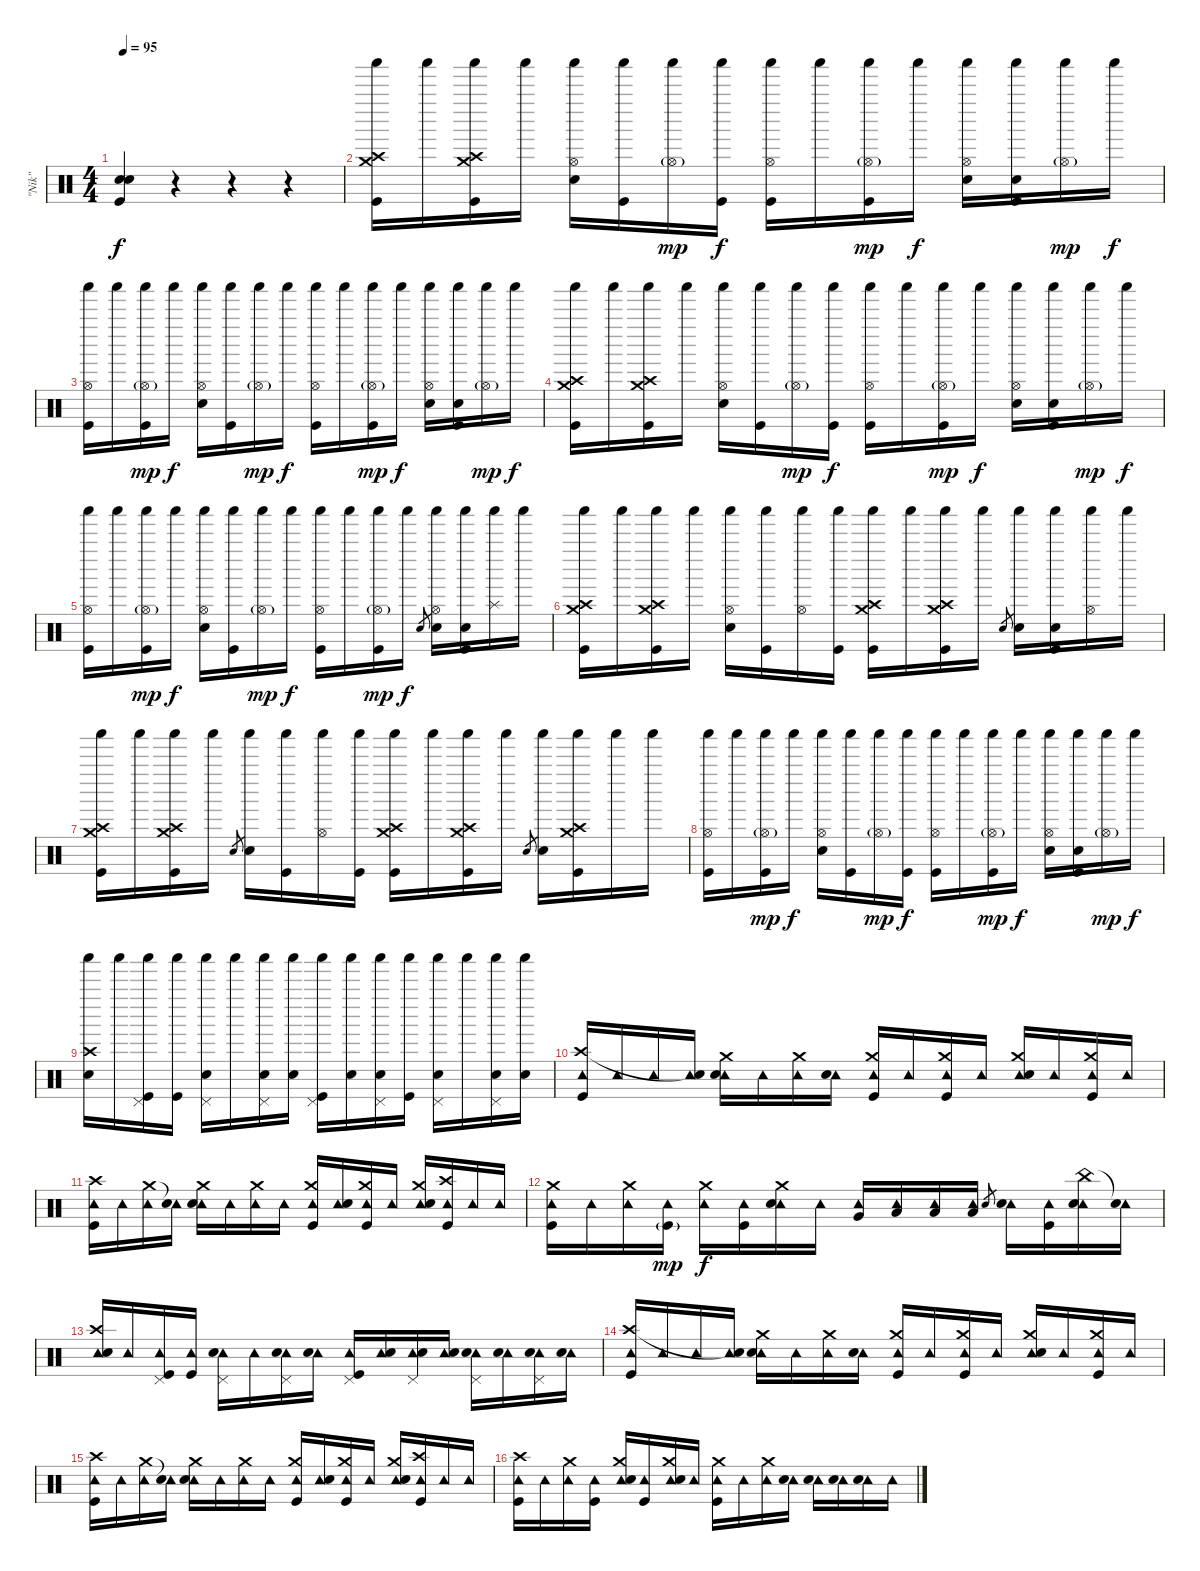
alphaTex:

\track ("\"Nik\"" "\"Nik\"") {instrument percussion}
\staff {score}
\articulation defaults
\ts (4 4)
\tempo 95
\clef neutral
\ks c
("Snare (hit) 2" "Snare (hit) 2" "Kick (hit)").4{dy f} r.4 r.4 r.4 |
("Shaker (hit)" "Crash medium (hit)" "Crash high (hit)" "Kick (hit)").16 "Shaker (hit)".16 ("Shaker (hit)" "Crash medium (hit)" "Crash high (hit)" "Kick (hit)").16 "Shaker (hit)".16 ("Shaker (hit)" "Hi-Hat (open)" "Snare (hit) 2").16 ("Shaker (hit)" "Kick (hit)").16 ("Shaker (hit)" "Hi-Hat (open)"{g}).16{dy mp} ("Shaker (hit)" "Kick (hit)").16{dy f} ("Shaker (hit)" "Hi-Hat (open)" "Kick (hit)").16 "Shaker (hit)".16 ("Shaker (hit)" "Hi-Hat (open)"{g} "Kick (hit)").16{dy mp} "Shaker (hit)".16{dy f} ("Shaker (hit)" "Hi-Hat (open)" "Snare (hit) 2").16 ("Shaker (hit)" "Snare (hit)"{x} "Kick (hit)").16 ("Shaker (hit)" "Hi-Hat (open)"{g}).16{dy mp} "Shaker (hit)".16{dy f} |
("Shaker (hit)" "Hi-Hat (open)" "Kick (hit)").16 "Shaker (hit)".16 ("Shaker (hit)" "Hi-Hat (open)"{g} "Kick (hit)").16{dy mp} "Shaker (hit)".16{dy f} ("Shaker (hit)" "Hi-Hat (open)" "Snare (hit) 2").16 ("Shaker (hit)" "Kick (hit)").16 ("Shaker (hit)" "Hi-Hat (open)"{g}).16{dy mp} "Shaker (hit)".16{dy f} ("Shaker (hit)" "Hi-Hat (open)" "Kick (hit)").16 "Shaker (hit)".16 ("Shaker (hit)" "Hi-Hat (open)"{g} "Kick (hit)").16{dy mp} "Shaker (hit)".16{dy f} ("Shaker (hit)" "Hi-Hat (open)" "Snare (hit) 2").16 ("Shaker (hit)" "Snare (hit)"{x} "Kick (hit)").16 ("Shaker (hit)" "Hi-Hat (open)"{g}).16{dy mp} "Shaker (hit)".16{dy f} |
("Shaker (hit)" "Crash medium (hit)" "Crash high (hit)" "Kick (hit)").16 "Shaker (hit)".16 ("Shaker (hit)" "Crash medium (hit)" "Crash high (hit)" "Kick (hit)").16 "Shaker (hit)".16 ("Shaker (hit)" "Hi-Hat (open)" "Snare (hit) 2").16 ("Shaker (hit)" "Kick (hit)").16 ("Shaker (hit)" "Hi-Hat (open)"{g}).16{dy mp} ("Shaker (hit)" "Kick (hit)").16{dy f} ("Shaker (hit)" "Hi-Hat (open)" "Kick (hit)").16 "Shaker (hit)".16 ("Shaker (hit)" "Hi-Hat (open)"{g} "Kick (hit)").16{dy mp} "Shaker (hit)".16{dy f} ("Shaker (hit)" "Hi-Hat (open)" "Snare (hit) 2").16 ("Shaker (hit)" "Snare (hit)"{x} "Kick (hit)").16 ("Shaker (hit)" "Hi-Hat (open)"{g}).16{dy mp} "Shaker (hit)".16{dy f} |
("Shaker (hit)" "Hi-Hat (open)" "Kick (hit)").16 "Shaker (hit)".16 ("Shaker (hit)" "Hi-Hat (open)"{g} "Kick (hit)").16{dy mp} "Shaker (hit)".16{dy f} ("Shaker (hit)" "Hi-Hat (open)" "Snare (hit) 2").16 ("Shaker (hit)" "Kick (hit)").16 ("Shaker (hit)" "Hi-Hat (open)"{g}).16{dy mp} "Shaker (hit)".16{dy f} ("Shaker (hit)" "Hi-Hat (open)" "Kick (hit)").16 "Shaker (hit)".16 ("Shaker (hit)" "Hi-Hat (open)"{g} "Kick (hit)").16{dy mp} "Shaker (hit)".16{dy f} "Snare (hit) 2".8{gr} ("Shaker (hit)" "Hi-Hat (open)" "Snare (hit) 2").16 ("Shaker (hit)" "Snare (hit)"{x} "Kick (hit)").16 ("Shaker (hit)" "Splash (hit)").16 "Shaker (hit)".16 |
("Shaker (hit)" "Crash medium (hit)" "Crash high (hit)" "Kick (hit)").16 "Shaker (hit)".16 ("Shaker (hit)" "Crash medium (hit)" "Crash high (hit)" "Kick (hit)").16 "Shaker (hit)".16 ("Shaker (hit)" "Hi-Hat (open)" "Snare (hit) 2").16 ("Shaker (hit)" "Kick (hit)").16 ("Shaker (hit)" "Hi-Hat (open)").16 ("Shaker (hit)" "Kick (hit)").16 ("Shaker (hit)" "Crash medium (hit)" "Crash high (hit)" "Kick (hit)").16 "Shaker (hit)".16 ("Shaker (hit)" "Crash medium (hit)" "Crash high (hit)" "Kick (hit)").16 "Shaker (hit)".16 "Snare (hit) 2".8{gr} ("Shaker (hit)" "Snare (hit) 2").16 ("Shaker (hit)" "Snare (hit)"{x} "Kick (hit)").16 ("Shaker (hit)" "Hi-Hat (open)").16 "Shaker (hit)".16 |
("Shaker (hit)" "Crash medium (hit)" "Crash high (hit)" "Kick (hit)").16 "Shaker (hit)".16 ("Shaker (hit)" "Crash medium (hit)" "Crash high (hit)" "Kick (hit)").16 "Shaker (hit)".16 "Snare (hit) 2".8{gr} ("Shaker (hit)" "Snare (hit) 2").16 ("Shaker (hit)" "Kick (hit)").16 ("Shaker (hit)" "Hi-Hat (open)").16 ("Shaker (hit)" "Kick (hit)").16 ("Shaker (hit)" "Crash medium (hit)" "Crash high (hit)" "Kick (hit)").16 "Shaker (hit)".16 ("Shaker (hit)" "Crash medium (hit)" "Crash high (hit)" "Kick (hit)").16 "Shaker (hit)".16 "Snare (hit) 2".8{gr} ("Shaker (hit)" "Snare (hit) 2").16 ("Shaker (hit)" "Crash medium (hit)" "Crash high (hit)" "Kick (hit)").16 "Shaker (hit)".16 "Shaker (hit)".16 |
("Shaker (hit)" "Hi-Hat (open)" "Kick (hit)").16 "Shaker (hit)".16 ("Shaker (hit)" "Hi-Hat (open)"{g} "Kick (hit)").16{dy mp} "Shaker (hit)".16{dy f} ("Shaker (hit)" "Hi-Hat (open)" "Snare (hit) 2").16 ("Shaker (hit)" "Kick (hit)").16 ("Shaker (hit)" "Hi-Hat (open)"{g}).16{dy mp} ("Shaker (hit)" "Kick (hit)").16{dy f} ("Shaker (hit)" "Hi-Hat (open)" "Kick (hit)").16 "Shaker (hit)".16 ("Shaker (hit)" "Hi-Hat (open)"{g} "Kick (hit)").16{dy mp} "Shaker (hit)".16{dy f} ("Shaker (hit)" "Hi-Hat (open)" "Snare (hit) 2").16 ("Shaker (hit)" "Snare (hit)"{x} "Kick (hit)").16 ("Shaker (hit)" "Hi-Hat (open)"{g}).16{dy mp} "Shaker (hit)".16{dy f} |
("Shaker (hit)" "Crash high (hit)" "Snare (hit) 2").16 "Shaker (hit)".16 ("Shaker (hit)" "Pedal Hi-Hat (hit)" "Kick (hit)").16 ("Shaker (hit)" "Kick (hit)").16 ("Shaker (hit)" "Pedal Hi-Hat (hit)" "Snare (hit) 2").16 "Shaker (hit)".16 ("Shaker (hit)" "Pedal Hi-Hat (hit)" "Snare (hit) 2").16 ("Shaker (hit)" "Snare (hit) 2").16 ("Shaker (hit)" "Pedal Hi-Hat (hit)" "Kick (hit)").16 ("Shaker (hit)" "Snare (hit) 2").16 ("Shaker (hit)" "Pedal Hi-Hat (hit)" "Snare (hit) 2").16 ("Shaker (hit)" "Kick (hit)").16 ("Shaker (hit)" "Pedal Hi-Hat (hit)" "Snare (hit) 2").16 "Shaker (hit)".16 ("Shaker (hit)" "Pedal Hi-Hat (hit)" "Snare (hit) 2").16 ("Shaker (hit)" "Snare (hit) 2").16 |
("Tambourine (hit)" "Crash high (hit)" "Kick (hit)").16 "Tambourine (hit)".16 "Tambourine (hit)".16 ("Tambourine (hit)" "Snare (hit)"{t}).16 ("Tambourine (hit)" "Crash medium (hit)" "Snare (hit) 2").16 "Tambourine (hit)".16 ("Tambourine (hit)" "Crash medium (hit)").16 ("Tambourine (hit)" "Snare (hit) 2").16 ("Tambourine (hit)" "Crash medium (hit)" "Kick (hit)").16 "Tambourine (hit)".16 ("Tambourine (hit)" "Crash medium (hit)" "Kick (hit)").16 "Tambourine (hit)".16 ("Tambourine (hit)" "Crash medium (hit)" "Snare (hit) 2").16 "Tambourine (hit)".16 ("Tambourine (hit)" "Crash medium (hit)" "Kick (hit)").16 "Tambourine (hit)".16 |
("Tambourine (hit)" "Crash high (hit)" "Kick (hit)").16 "Tambourine (hit)".16 ("Tambourine (hit)" "Crash medium (hit)").16 ("Tambourine (hit)" "Snare (hit)"{t}).16 ("Tambourine (hit)" "Crash medium (hit)" "Snare (hit) 2").16 "Tambourine (hit)".16 ("Tambourine (hit)" "Crash medium (hit)").16 "Tambourine (hit)".16 ("Tambourine (hit)" "Crash medium (hit)" "Kick (hit)").16 ("Tambourine (hit)" "Snare (hit) 2").16 ("Tambourine (hit)" "Crash medium (hit)" "Kick (hit)").16 "Tambourine (hit)".16 ("Tambourine (hit)" "Crash medium (hit)" "Snare (hit) 2").16 ("Tambourine (hit)" "Crash high (hit)" "Kick (hit)").16 "Tambourine (hit)".16 "Tambourine (hit)".16 |
("Tambourine (hit)" "Crash medium (hit)" "Kick (hit)").16 "Tambourine (hit)".16 ("Tambourine (hit)" "Crash medium (hit)").16 ("Tambourine (hit)" "Kick (hit)"{g}).16{dy mp} ("Tambourine (hit)" "Crash medium (hit)").16{dy f} ("Tambourine (hit)" "Kick (hit)").16 ("Tambourine (hit)" "Crash medium (hit)" "Snare (hit) 2").16 "Tambourine (hit)".16 ("Tambourine (hit)" "Very Low Tom (hit)").16 ("Tambourine (hit)" "Low Tom (hit)").16 ("Tambourine (hit)" "Low Tom (hit)").16 ("Tambourine (hit)" "Low Floor Tom (hit)").16 "Snare (hit) 2".8{gr} ("Tambourine (hit)" "Snare (hit) 2").16 ("Tambourine (hit)" "Kick (hit)").16 ("Tambourine (hit)" "China (hit)" "Snare (hit) 2").16 ("Tambourine (hit)" "Snare (hit)"{t}).16 |
("Tambourine (hit)" "Crash high (hit)" "Snare (hit) 2").16 "Tambourine (hit)".16 ("Tambourine (hit)" "Pedal Hi-Hat (hit)" "Kick (hit)").16 ("Tambourine (hit)" "Kick (hit)").16 ("Tambourine (hit)" "Pedal Hi-Hat (hit)" "Snare (hit) 2").16 "Tambourine (hit)".16 ("Tambourine (hit)" "Pedal Hi-Hat (hit)" "Snare (hit) 2").16 ("Tambourine (hit)" "Snare (hit) 2").16 ("Tambourine (hit)" "Pedal Hi-Hat (hit)" "Kick (hit)").16 ("Tambourine (hit)" "Snare (hit) 2").16 ("Tambourine (hit)" "Pedal Hi-Hat (hit)" "Snare (hit) 2").16 ("Tambourine (hit)" "Snare (hit) 2").16 ("Tambourine (hit)" "Pedal Hi-Hat (hit)" "Snare (hit) 2").16 ("Tambourine (hit)" "Snare (hit) 2").16 ("Tambourine (hit)" "Pedal Hi-Hat (hit)" "Snare (hit) 2").16 ("Tambourine (hit)" "Snare (hit) 2").16 |
("Tambourine (hit)" "Crash high (hit)" "Kick (hit)").16 "Tambourine (hit)".16 "Tambourine (hit)".16 ("Tambourine (hit)" "Snare (hit)"{t}).16 ("Tambourine (hit)" "Crash medium (hit)" "Snare (hit) 2").16 "Tambourine (hit)".16 ("Tambourine (hit)" "Crash medium (hit)").16 ("Tambourine (hit)" "Snare (hit) 2").16 ("Tambourine (hit)" "Crash medium (hit)" "Kick (hit)").16 "Tambourine (hit)".16 ("Tambourine (hit)" "Crash medium (hit)" "Kick (hit)").16 "Tambourine (hit)".16 ("Tambourine (hit)" "Crash medium (hit)" "Snare (hit) 2").16 "Tambourine (hit)".16 ("Tambourine (hit)" "Crash medium (hit)" "Kick (hit)").16 "Tambourine (hit)".16 |
("Tambourine (hit)" "Crash high (hit)" "Kick (hit)").16 "Tambourine (hit)".16 ("Tambourine (hit)" "Crash medium (hit)").16 ("Tambourine (hit)" "Snare (hit)"{t}).16 ("Tambourine (hit)" "Crash medium (hit)" "Snare (hit) 2").16 "Tambourine (hit)".16 ("Tambourine (hit)" "Crash medium (hit)").16 "Tambourine (hit)".16 ("Tambourine (hit)" "Crash medium (hit)" "Kick (hit)").16 ("Tambourine (hit)" "Snare (hit) 2").16 ("Tambourine (hit)" "Crash medium (hit)" "Kick (hit)").16 "Tambourine (hit)".16 ("Tambourine (hit)" "Crash medium (hit)" "Snare (hit) 2").16 ("Tambourine (hit)" "Crash high (hit)" "Kick (hit)").16 "Tambourine (hit)".16 "Tambourine (hit)".16 |
("Tambourine (hit)" "Crash high (hit)" "Kick (hit)").16 "Tambourine (hit)".16 ("Tambourine (hit)" "Crash medium (hit)").16 ("Tambourine (hit)" "Kick (hit)").16 ("Tambourine (hit)" "Crash medium (hit)" "Snare (hit) 2").16 ("Tambourine (hit)" "Kick (hit)").16 ("Tambourine (hit)" "Crash medium (hit)" "Snare (hit) 2").16 "Tambourine (hit)".16 ("Tambourine (hit)" "Crash medium (hit)" "Kick (hit)").16 "Tambourine (hit)".16 ("Tambourine (hit)" "Crash medium (hit)").16 ("Tambourine (hit)" "Snare (hit) 2").16 ("Tambourine (hit)" "Snare (hit) 2").16 ("Tambourine (hit)" "Snare (hit) 2").16 ("Tambourine (hit)" "Snare (hit) 2").16 "Tambourine (hit)".16
